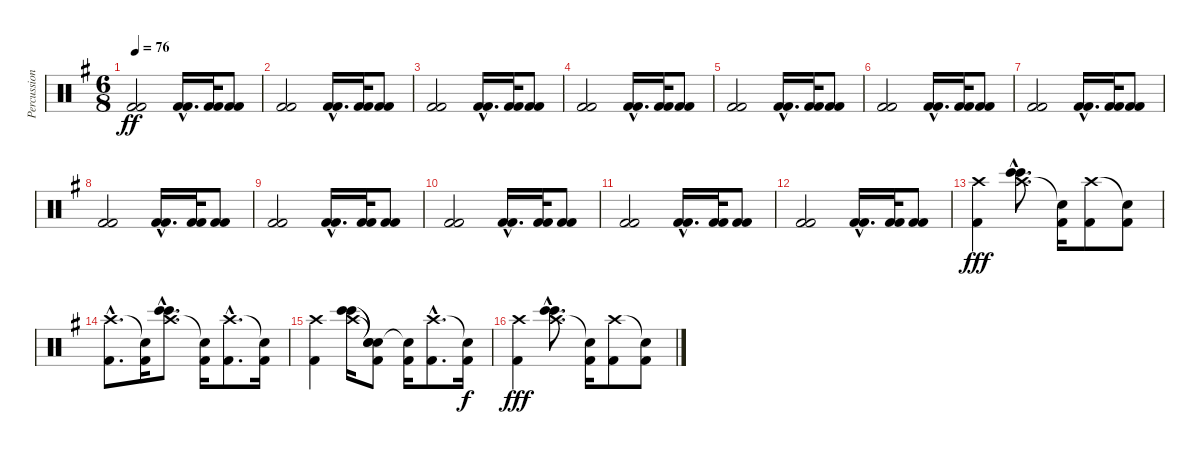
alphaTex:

\track ("Percussions 1" "Percussion") {instrument percussion}
\staff {score}
\articulation defaults
\ts (6 8)
\tempo 76
\clef neutral
\ks g
("Kick (hit) 2" "Kick (hit) 2").2{dy ff} ("Kick (hit) 2"{hac} "Kick (hit) 2"{hac}).16{d} ("Kick (hit) 2" "Kick (hit) 2").32 ("Kick (hit) 2" "Kick (hit) 2").8 |
("Kick (hit) 2" "Kick (hit) 2").2 ("Kick (hit) 2"{hac} "Kick (hit) 2"{hac}).16{d} ("Kick (hit) 2" "Kick (hit) 2").32 ("Kick (hit) 2" "Kick (hit) 2").8 |
("Kick (hit) 2" "Kick (hit) 2").2 ("Kick (hit) 2"{hac} "Kick (hit) 2"{hac}).16{d} ("Kick (hit) 2" "Kick (hit) 2").32 ("Kick (hit) 2" "Kick (hit) 2").8 |
("Kick (hit) 2" "Kick (hit) 2").2 ("Kick (hit) 2"{hac} "Kick (hit) 2"{hac}).16{d} ("Kick (hit) 2" "Kick (hit) 2").32 ("Kick (hit) 2" "Kick (hit) 2").8 |
("Kick (hit) 2" "Kick (hit) 2").2 ("Kick (hit) 2"{hac} "Kick (hit) 2"{hac}).16{d} ("Kick (hit) 2" "Kick (hit) 2").32 ("Kick (hit) 2" "Kick (hit) 2").8 |
("Kick (hit) 2" "Kick (hit) 2").2 ("Kick (hit) 2"{hac} "Kick (hit) 2"{hac}).16{d} ("Kick (hit) 2" "Kick (hit) 2").32 ("Kick (hit) 2" "Kick (hit) 2").8 |
("Kick (hit) 2" "Kick (hit) 2").2 ("Kick (hit) 2"{hac} "Kick (hit) 2"{hac}).16{d} ("Kick (hit) 2" "Kick (hit) 2").32 ("Kick (hit) 2" "Kick (hit) 2").8 |
("Kick (hit) 2" "Kick (hit) 2").2 ("Kick (hit) 2"{hac} "Kick (hit) 2"{hac}).16{d} ("Kick (hit) 2" "Kick (hit) 2").32 ("Kick (hit) 2" "Kick (hit) 2").8 |
("Kick (hit) 2" "Kick (hit) 2").2 ("Kick (hit) 2"{hac} "Kick (hit) 2"{hac}).16{d} ("Kick (hit) 2" "Kick (hit) 2").32 ("Kick (hit) 2" "Kick (hit) 2").8 |
("Kick (hit) 2" "Kick (hit) 2").2 ("Kick (hit) 2"{hac} "Kick (hit) 2"{hac}).16{d} ("Kick (hit) 2" "Kick (hit) 2").32 ("Kick (hit) 2" "Kick (hit) 2").8 |
("Kick (hit) 2" "Kick (hit) 2").2 ("Kick (hit) 2"{hac} "Kick (hit) 2"{hac}).16{d} ("Kick (hit) 2" "Kick (hit) 2").32 ("Kick (hit) 2" "Kick (hit) 2").8 |
("Kick (hit) 2" "Kick (hit) 2").2 ("Kick (hit) 2"{hac} "Kick (hit) 2"{hac}).16{d} ("Kick (hit) 2" "Kick (hit) 2").32 ("Kick (hit) 2" "Kick (hit) 2").8 |
("Crash high (hit)" "Kick (hit) 2").4{dy fff} ("Crash high (hit)"{hac} "Bongo High (hit)"{hac} "Bongo High (hit)"{hac}).8{d} ("Snare (hit)"{t} "Kick (hit) 2").16 ("Crash high (hit)" "Kick (hit) 2").8 ("Snare (hit)"{t} "Kick (hit) 2").8 |
("Crash high (hit)"{hac} "Kick (hit) 2"{hac}).8{d} ("Snare (hit)"{t} "Kick (hit) 2").16 ("Crash high (hit)"{hac} "Bongo High (hit)"{hac} "Bongo High (hit)"{hac}).8{d} ("Snare (hit)"{t} "Kick (hit) 2").16 ("Crash high (hit)"{hac} "Kick (hit) 2"{hac}).8{d} ("Snare (hit)"{t} "Kick (hit) 2").16 |
("Crash high (hit)" "Kick (hit) 2").4 ("Crash high (hit)" "Bongo High (hit)" "Bongo High (hit)").16 ("Snare (hit)"{t} "Snare (hit)"{t} "Snare (hit)"{t} "Kick (hit) 2").8 ("Snare (hit)"{t} "Kick (hit) 2").16 ("Crash high (hit)"{hac} "Kick (hit) 2"{hac}).8{d} ("Snare (hit)"{t} "Kick (hit) 2").16{dy f} |
("Crash high (hit)" "Kick (hit) 2").4{dy fff} ("Crash high (hit)"{hac} "Bongo High (hit)"{hac} "Bongo High (hit)"{hac}).8{d} ("Snare (hit)"{t} "Kick (hit) 2").16 ("Crash high (hit)" "Kick (hit) 2").8 ("Snare (hit)"{t} "Kick (hit) 2").8
